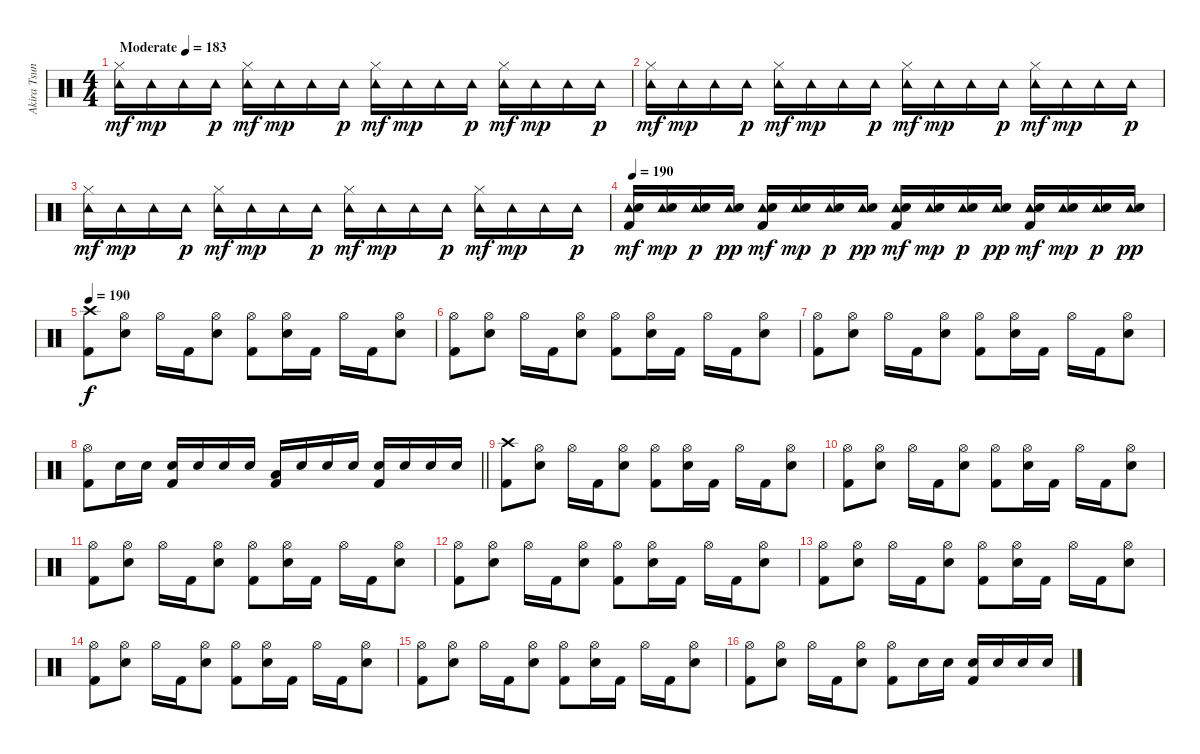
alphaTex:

\track ("Akira Tsuneoka" "Akira Tsun") {instrument percussion}
\staff {score}
\articulation defaults
\ts (4 4)
\tempo (183 "Moderate")
\clef neutral
\ks c
("Hi-Hat (closed)" "Tambourine (hit)").16{dy mf} "Tambourine (hit)".16{dy mp} "Tambourine (hit)".16 "Tambourine (hit)".16{dy p} ("Hi-Hat (closed)" "Tambourine (hit)").16{dy mf} "Tambourine (hit)".16{dy mp} "Tambourine (hit)".16 "Tambourine (hit)".16{dy p} ("Hi-Hat (closed)" "Tambourine (hit)").16{dy mf} "Tambourine (hit)".16{dy mp} "Tambourine (hit)".16 "Tambourine (hit)".16{dy p} ("Hi-Hat (closed)" "Tambourine (hit)").16{dy mf} "Tambourine (hit)".16{dy mp} "Tambourine (hit)".16 "Tambourine (hit)".16{dy p} |
("Hi-Hat (closed)" "Tambourine (hit)").16{dy mf} "Tambourine (hit)".16{dy mp} "Tambourine (hit)".16 "Tambourine (hit)".16{dy p} ("Hi-Hat (closed)" "Tambourine (hit)").16{dy mf} "Tambourine (hit)".16{dy mp} "Tambourine (hit)".16 "Tambourine (hit)".16{dy p} ("Hi-Hat (closed)" "Tambourine (hit)").16{dy mf} "Tambourine (hit)".16{dy mp} "Tambourine (hit)".16 "Tambourine (hit)".16{dy p} ("Hi-Hat (closed)" "Tambourine (hit)").16{dy mf} "Tambourine (hit)".16{dy mp} "Tambourine (hit)".16 "Tambourine (hit)".16{dy p} |
("Hi-Hat (closed)" "Tambourine (hit)").16{dy mf} "Tambourine (hit)".16{dy mp} "Tambourine (hit)".16 "Tambourine (hit)".16{dy p} ("Hi-Hat (closed)" "Tambourine (hit)").16{dy mf} "Tambourine (hit)".16{dy mp} "Tambourine (hit)".16 "Tambourine (hit)".16{dy p} ("Hi-Hat (closed)" "Tambourine (hit)").16{dy mf} "Tambourine (hit)".16{dy mp} "Tambourine (hit)".16 "Tambourine (hit)".16{dy p} ("Hi-Hat (closed)" "Tambourine (hit)").16{dy mf} "Tambourine (hit)".16{dy mp} "Tambourine (hit)".16 "Tambourine (hit)".16{dy p} |
\tempo 190
("Tambourine (hit)" "Electric Snare (hit)" "Kick (hit) 2").16{dy mf} ("Tambourine (hit)" "Electric Snare (hit)").16{dy mp} ("Tambourine (hit)" "Electric Snare (hit)").16{dy p} ("Tambourine (hit)" "Electric Snare (hit)").16{dy pp} ("Tambourine (hit)" "Electric Snare (hit)" "Kick (hit) 2").16{dy mf} ("Tambourine (hit)" "Electric Snare (hit)").16{dy mp} ("Tambourine (hit)" "Electric Snare (hit)").16{dy p} ("Tambourine (hit)" "Electric Snare (hit)").16{dy pp} ("Tambourine (hit)" "Electric Snare (hit)" "Kick (hit) 2").16{dy mf} ("Tambourine (hit)" "Electric Snare (hit)").16{dy mp} ("Tambourine (hit)" "Electric Snare (hit)").16{dy p} ("Tambourine (hit)" "Electric Snare (hit)").16{dy pp} ("Tambourine (hit)" "Electric Snare (hit)" "Kick (hit) 2").16{dy mf} ("Tambourine (hit)" "Electric Snare (hit)").16{dy mp} ("Tambourine (hit)" "Electric Snare (hit)").16{dy p} ("Tambourine (hit)" "Electric Snare (hit)").16{dy pp} |
\tempo 190
("Crash high (hit)" "Kick (hit) 2").8{dy f} ("Hi-Hat (open)" "Electric Snare (hit)").8 "Hi-Hat (open)".16 "Kick (hit) 2".16 ("Hi-Hat (open)" "Electric Snare (hit)").8 ("Hi-Hat (open)" "Kick (hit) 2").8 ("Hi-Hat (open)" "Electric Snare (hit)").16 "Kick (hit) 2".16 "Hi-Hat (open)".16 "Kick (hit) 2".16 ("Hi-Hat (open)" "Electric Snare (hit)").8 |
("Hi-Hat (open)" "Kick (hit) 2").8 ("Hi-Hat (open)" "Electric Snare (hit)").8 "Hi-Hat (open)".16 "Kick (hit) 2".16 ("Hi-Hat (open)" "Electric Snare (hit)").8 ("Hi-Hat (open)" "Kick (hit) 2").8 ("Hi-Hat (open)" "Electric Snare (hit)").16 "Kick (hit) 2".16 "Hi-Hat (open)".16 "Kick (hit) 2".16 ("Hi-Hat (open)" "Electric Snare (hit)").8 |
("Hi-Hat (open)" "Kick (hit) 2").8 ("Hi-Hat (open)" "Electric Snare (hit)").8 "Hi-Hat (open)".16 "Kick (hit) 2".16 ("Hi-Hat (open)" "Electric Snare (hit)").8 ("Hi-Hat (open)" "Kick (hit) 2").8 ("Hi-Hat (open)" "Electric Snare (hit)").16 "Kick (hit) 2".16 "Hi-Hat (open)".16 "Kick (hit) 2".16 ("Hi-Hat (open)" "Electric Snare (hit)").8 |
\barLineRight lightlight
("Hi-Hat (open)" "Kick (hit) 2").8 "Electric Snare (hit)".16 "Electric Snare (hit)".16 ("Electric Snare (hit)" "Kick (hit) 2").16 "Electric Snare (hit)".16 "Electric Snare (hit)".16 "Electric Snare (hit)".16 ("Low Tom (hit)" "Kick (hit) 2").16 "Electric Snare (hit)".16 "Electric Snare (hit)".16 "Electric Snare (hit)".16 ("Electric Snare (hit)" "Kick (hit) 2").16 "Electric Snare (hit)".16 "Electric Snare (hit)".16 "Electric Snare (hit)".16 |
\section ("" "")
("Crash high (hit)" "Kick (hit) 2").8 ("Hi-Hat (open)" "Electric Snare (hit)").8 "Hi-Hat (open)".16 "Kick (hit) 2".16 ("Hi-Hat (open)" "Electric Snare (hit)").8 ("Hi-Hat (open)" "Kick (hit) 2").8 ("Hi-Hat (open)" "Electric Snare (hit)").16 "Kick (hit) 2".16 "Hi-Hat (open)".16 "Kick (hit) 2".16 ("Hi-Hat (open)" "Electric Snare (hit)").8 |
("Hi-Hat (open)" "Kick (hit) 2").8 ("Hi-Hat (open)" "Electric Snare (hit)").8 "Hi-Hat (open)".16 "Kick (hit) 2".16 ("Hi-Hat (open)" "Electric Snare (hit)").8 ("Hi-Hat (open)" "Kick (hit) 2").8 ("Hi-Hat (open)" "Electric Snare (hit)").16 "Kick (hit) 2".16 "Hi-Hat (open)".16 "Kick (hit) 2".16 ("Hi-Hat (open)" "Electric Snare (hit)").8 |
("Hi-Hat (open)" "Kick (hit) 2").8 ("Hi-Hat (open)" "Electric Snare (hit)").8 "Hi-Hat (open)".16 "Kick (hit) 2".16 ("Hi-Hat (open)" "Electric Snare (hit)").8 ("Hi-Hat (open)" "Kick (hit) 2").8 ("Hi-Hat (open)" "Electric Snare (hit)").16 "Kick (hit) 2".16 "Hi-Hat (open)".16 "Kick (hit) 2".16 ("Hi-Hat (open)" "Electric Snare (hit)").8 |
("Hi-Hat (open)" "Kick (hit) 2").8 ("Hi-Hat (open)" "Electric Snare (hit)").8 "Hi-Hat (open)".16 "Kick (hit) 2".16 ("Hi-Hat (open)" "Electric Snare (hit)").8 ("Hi-Hat (open)" "Kick (hit) 2").8 ("Hi-Hat (open)" "Electric Snare (hit)").16 "Kick (hit) 2".16 "Hi-Hat (open)".16 "Kick (hit) 2".16 ("Hi-Hat (open)" "Electric Snare (hit)").8 |
("Hi-Hat (open)" "Kick (hit) 2").8 ("Hi-Hat (open)" "Electric Snare (hit)").8 "Hi-Hat (open)".16 "Kick (hit) 2".16 ("Hi-Hat (open)" "Electric Snare (hit)").8 ("Hi-Hat (open)" "Kick (hit) 2").8 ("Hi-Hat (open)" "Electric Snare (hit)").16 "Kick (hit) 2".16 "Hi-Hat (open)".16 "Kick (hit) 2".16 ("Hi-Hat (open)" "Electric Snare (hit)").8 |
("Hi-Hat (open)" "Kick (hit) 2").8 ("Hi-Hat (open)" "Electric Snare (hit)").8 "Hi-Hat (open)".16 "Kick (hit) 2".16 ("Hi-Hat (open)" "Electric Snare (hit)").8 ("Hi-Hat (open)" "Kick (hit) 2").8 ("Hi-Hat (open)" "Electric Snare (hit)").16 "Kick (hit) 2".16 "Hi-Hat (open)".16 "Kick (hit) 2".16 ("Hi-Hat (open)" "Electric Snare (hit)").8 |
("Hi-Hat (open)" "Kick (hit) 2").8 ("Hi-Hat (open)" "Electric Snare (hit)").8 "Hi-Hat (open)".16 "Kick (hit) 2".16 ("Hi-Hat (open)" "Electric Snare (hit)").8 ("Hi-Hat (open)" "Kick (hit) 2").8 ("Hi-Hat (open)" "Electric Snare (hit)").16 "Kick (hit) 2".16 "Hi-Hat (open)".16 "Kick (hit) 2".16 ("Hi-Hat (open)" "Electric Snare (hit)").8 |
("Hi-Hat (open)" "Kick (hit) 2").8 ("Hi-Hat (open)" "Electric Snare (hit)").8 "Hi-Hat (open)".16 "Kick (hit) 2".16 ("Hi-Hat (open)" "Electric Snare (hit)").8 ("Hi-Hat (open)" "Kick (hit) 2").8 "Electric Snare (hit)".16 "Electric Snare (hit)".16 ("Electric Snare (hit)" "Kick (hit) 2").16 "Electric Snare (hit)".16 "Electric Snare (hit)".16 "Electric Snare (hit)".16
